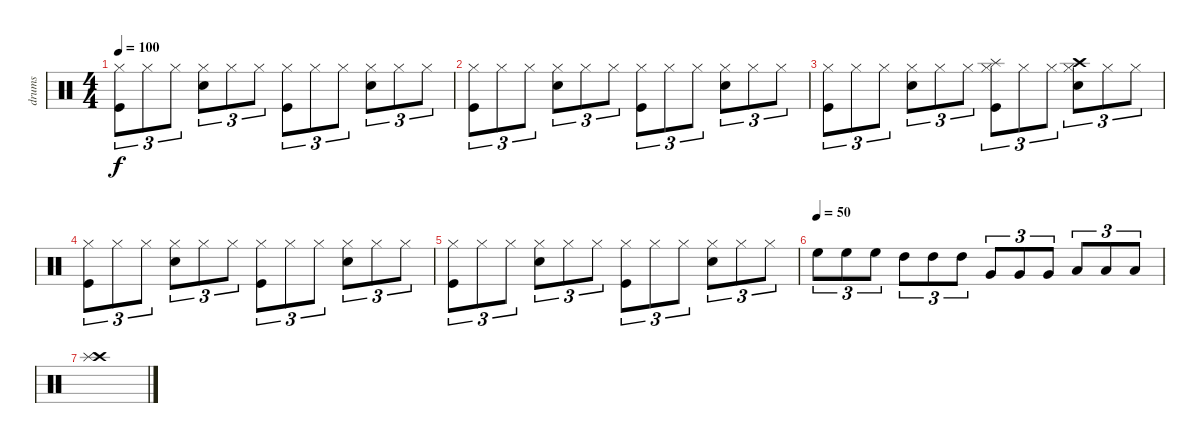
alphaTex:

\track ("drums" "drums") {instrument percussion}
\staff {score}
\articulation defaults
\ts (4 4)
\tempo 100
\clef neutral
\ks c
("Hi-Hat (closed)" "Kick (hit)").8{tu (3 2) dy f} "Hi-Hat (closed)".8{tu (3 2)} "Hi-Hat (closed)".8{tu (3 2)} ("Hi-Hat (closed)" "Snare (hit) 2").8{tu (3 2)} "Hi-Hat (closed)".8{tu (3 2)} "Hi-Hat (closed)".8{tu (3 2)} ("Hi-Hat (closed)" "Kick (hit)").8{tu (3 2)} "Hi-Hat (closed)".8{tu (3 2)} "Hi-Hat (closed)".8{tu (3 2)} ("Hi-Hat (closed)" "Snare (hit) 2").8{tu (3 2)} "Hi-Hat (closed)".8{tu (3 2)} "Hi-Hat (closed)".8{tu (3 2)} |
("Hi-Hat (closed)" "Kick (hit)").8{tu (3 2)} "Hi-Hat (closed)".8{tu (3 2)} "Hi-Hat (closed)".8{tu (3 2)} ("Hi-Hat (closed)" "Snare (hit) 2").8{tu (3 2)} "Hi-Hat (closed)".8{tu (3 2)} "Hi-Hat (closed)".8{tu (3 2)} ("Hi-Hat (closed)" "Kick (hit)").8{tu (3 2)} "Hi-Hat (closed)".8{tu (3 2)} "Hi-Hat (closed)".8{tu (3 2)} ("Hi-Hat (closed)" "Snare (hit) 2").8{tu (3 2)} "Hi-Hat (closed)".8{tu (3 2)} "Hi-Hat (closed)".8{tu (3 2)} |
("Hi-Hat (closed)" "Kick (hit)").8{tu (3 2)} "Hi-Hat (closed)".8{tu (3 2)} "Hi-Hat (closed)".8{tu (3 2)} ("Hi-Hat (closed)" "Snare (hit) 2").8{tu (3 2)} "Hi-Hat (closed)".8{tu (3 2)} "Hi-Hat (closed)".8{tu (3 2)} ("Hi-Hat (closed)" "Splash (hit)" "Kick (hit)").8{tu (3 2)} "Hi-Hat (closed)".8{tu (3 2)} "Hi-Hat (closed)".8{tu (3 2)} ("Hi-Hat (closed)" "Crash high (hit)" "Snare (hit) 2").8{tu (3 2)} "Hi-Hat (closed)".8{tu (3 2)} "Hi-Hat (closed)".8{tu (3 2)} |
("Hi-Hat (closed)" "Kick (hit)").8{tu (3 2)} "Hi-Hat (closed)".8{tu (3 2)} "Hi-Hat (closed)".8{tu (3 2)} ("Hi-Hat (closed)" "Snare (hit) 2").8{tu (3 2)} "Hi-Hat (closed)".8{tu (3 2)} "Hi-Hat (closed)".8{tu (3 2)} ("Hi-Hat (closed)" "Kick (hit)").8{tu (3 2)} "Hi-Hat (closed)".8{tu (3 2)} "Hi-Hat (closed)".8{tu (3 2)} ("Hi-Hat (closed)" "Snare (hit) 2").8{tu (3 2)} "Hi-Hat (closed)".8{tu (3 2)} "Hi-Hat (closed)".8{tu (3 2)} |
("Hi-Hat (closed)" "Kick (hit)").8{tu (3 2)} "Hi-Hat (closed)".8{tu (3 2)} "Hi-Hat (closed)".8{tu (3 2)} ("Hi-Hat (closed)" "Snare (hit) 2").8{tu (3 2)} "Hi-Hat (closed)".8{tu (3 2)} "Hi-Hat (closed)".8{tu (3 2)} ("Hi-Hat (closed)" "Kick (hit)").8{tu (3 2)} "Hi-Hat (closed)".8{tu (3 2)} "Hi-Hat (closed)".8{tu (3 2)} ("Hi-Hat (closed)" "Snare (hit) 2").8{tu (3 2)} "Hi-Hat (closed)".8{tu (3 2)} "Hi-Hat (closed)".8{tu (3 2)} |
\tempo (50)
"High Floor Tom (hit)".8{tu (3 2)} "High Floor Tom (hit)".8{tu (3 2)} "High Floor Tom (hit)".8{tu (3 2)} "High Tom (hit)".8{tu (3 2)} "High Tom (hit)".8{tu (3 2)} "High Tom (hit)".8{tu (3 2)} "Very Low Tom (hit)".8{tu (3 2)} "Very Low Tom (hit)".8{tu (3 2)} "Very Low Tom (hit)".8{tu (3 2)} "Low Floor Tom (hit)".8{tu (3 2)} "Low Floor Tom (hit)".8{tu (3 2)} "Low Floor Tom (hit)".8{tu (3 2)} |
("Crash high (hit)" "Splash (hit)").1
